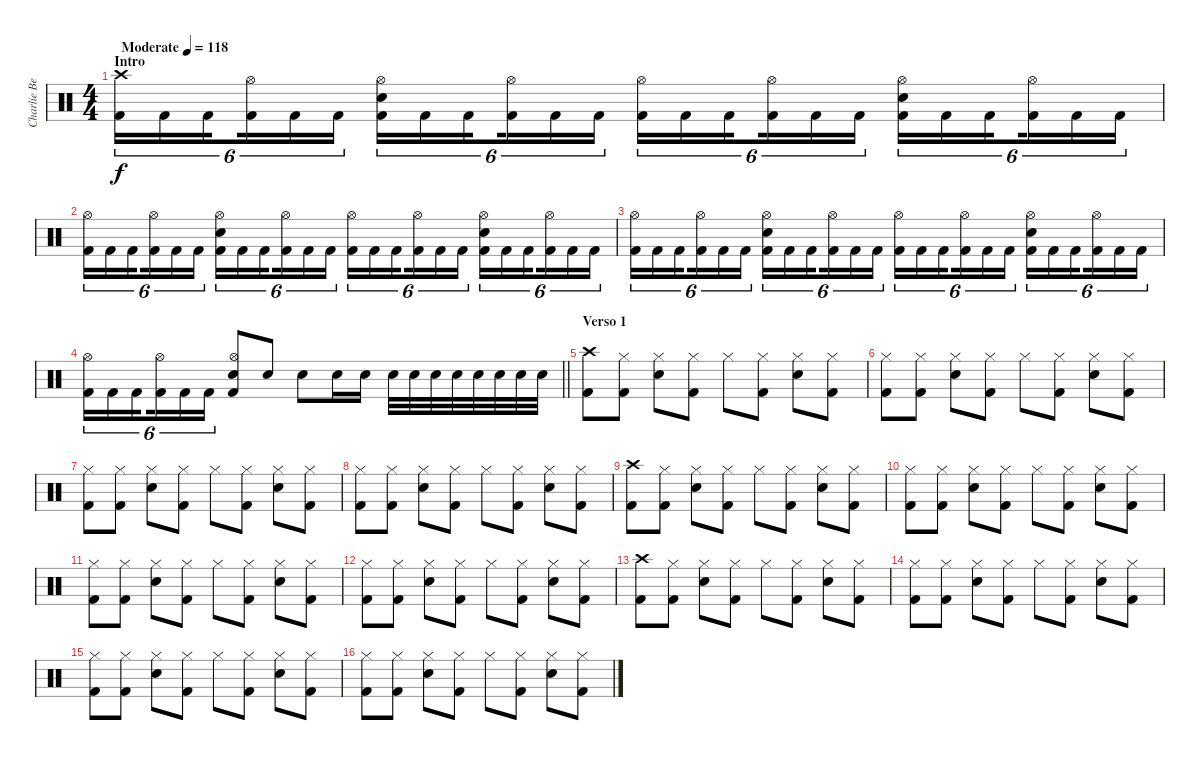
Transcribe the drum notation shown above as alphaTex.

\track ("Charlie Benante" "Charlie Be") {instrument percussion}
\staff {score}
\articulation defaults
\ts (4 4)
\section ("" "Intro")
\tempo (118 "Moderate")
\clef neutral
\ks c
("Crash high (hit)" "Kick (hit) 2").16{tu (6 4) dy f} "Kick (hit) 2".16{tu (6 4)} "Kick (hit) 2".16{tu (6 4) beam splitsecondary} ("Hi-Hat (open)" "Kick (hit) 2").16{tu (6 4)} "Kick (hit) 2".16{tu (6 4)} "Kick (hit) 2".16{tu (6 4)} ("Hi-Hat (open)" "Snare (hit) 2" "Kick (hit) 2").16{tu (6 4)} "Kick (hit) 2".16{tu (6 4)} "Kick (hit) 2".16{tu (6 4) beam splitsecondary} ("Hi-Hat (open)" "Kick (hit) 2").16{tu (6 4)} "Kick (hit) 2".16{tu (6 4)} "Kick (hit) 2".16{tu (6 4)} ("Hi-Hat (open)" "Kick (hit) 2").16{tu (6 4)} "Kick (hit) 2".16{tu (6 4)} "Kick (hit) 2".16{tu (6 4) beam splitsecondary} ("Hi-Hat (open)" "Kick (hit) 2").16{tu (6 4)} "Kick (hit) 2".16{tu (6 4)} "Kick (hit) 2".16{tu (6 4)} ("Hi-Hat (open)" "Snare (hit) 2" "Kick (hit) 2").16{tu (6 4)} "Kick (hit) 2".16{tu (6 4)} "Kick (hit) 2".16{tu (6 4) beam splitsecondary} ("Hi-Hat (open)" "Kick (hit) 2").16{tu (6 4)} "Kick (hit) 2".16{tu (6 4)} "Kick (hit) 2".16{tu (6 4)} |
("Hi-Hat (open)" "Kick (hit) 2").16{tu (6 4)} "Kick (hit) 2".16{tu (6 4)} "Kick (hit) 2".16{tu (6 4) beam splitsecondary} ("Hi-Hat (open)" "Kick (hit) 2").16{tu (6 4)} "Kick (hit) 2".16{tu (6 4)} "Kick (hit) 2".16{tu (6 4)} ("Hi-Hat (open)" "Snare (hit) 2" "Kick (hit) 2").16{tu (6 4)} "Kick (hit) 2".16{tu (6 4)} "Kick (hit) 2".16{tu (6 4) beam splitsecondary} ("Hi-Hat (open)" "Kick (hit) 2").16{tu (6 4)} "Kick (hit) 2".16{tu (6 4)} "Kick (hit) 2".16{tu (6 4)} ("Hi-Hat (open)" "Kick (hit) 2").16{tu (6 4)} "Kick (hit) 2".16{tu (6 4)} "Kick (hit) 2".16{tu (6 4) beam splitsecondary} ("Hi-Hat (open)" "Kick (hit) 2").16{tu (6 4)} "Kick (hit) 2".16{tu (6 4)} "Kick (hit) 2".16{tu (6 4)} ("Hi-Hat (open)" "Snare (hit) 2" "Kick (hit) 2").16{tu (6 4)} "Kick (hit) 2".16{tu (6 4)} "Kick (hit) 2".16{tu (6 4) beam splitsecondary} ("Hi-Hat (open)" "Kick (hit) 2").16{tu (6 4)} "Kick (hit) 2".16{tu (6 4)} "Kick (hit) 2".16{tu (6 4)} |
("Hi-Hat (open)" "Kick (hit) 2").16{tu (6 4)} "Kick (hit) 2".16{tu (6 4)} "Kick (hit) 2".16{tu (6 4) beam splitsecondary} ("Hi-Hat (open)" "Kick (hit) 2").16{tu (6 4)} "Kick (hit) 2".16{tu (6 4)} "Kick (hit) 2".16{tu (6 4)} ("Hi-Hat (open)" "Snare (hit) 2" "Kick (hit) 2").16{tu (6 4)} "Kick (hit) 2".16{tu (6 4)} "Kick (hit) 2".16{tu (6 4) beam splitsecondary} ("Hi-Hat (open)" "Kick (hit) 2").16{tu (6 4)} "Kick (hit) 2".16{tu (6 4)} "Kick (hit) 2".16{tu (6 4)} ("Hi-Hat (open)" "Kick (hit) 2").16{tu (6 4)} "Kick (hit) 2".16{tu (6 4)} "Kick (hit) 2".16{tu (6 4) beam splitsecondary} ("Hi-Hat (open)" "Kick (hit) 2").16{tu (6 4)} "Kick (hit) 2".16{tu (6 4)} "Kick (hit) 2".16{tu (6 4)} ("Hi-Hat (open)" "Snare (hit) 2" "Kick (hit) 2").16{tu (6 4)} "Kick (hit) 2".16{tu (6 4)} "Kick (hit) 2".16{tu (6 4) beam splitsecondary} ("Hi-Hat (open)" "Kick (hit) 2").16{tu (6 4)} "Kick (hit) 2".16{tu (6 4)} "Kick (hit) 2".16{tu (6 4)} |
\barLineRight lightlight
("Hi-Hat (open)" "Kick (hit) 2").16{tu (6 4)} "Kick (hit) 2".16{tu (6 4)} "Kick (hit) 2".16{tu (6 4) beam splitsecondary} ("Hi-Hat (open)" "Kick (hit) 2").16{tu (6 4)} "Kick (hit) 2".16{tu (6 4)} "Kick (hit) 2".16{tu (6 4)} ("Hi-Hat (open)" "Snare (hit) 2" "Kick (hit) 2").8 "Snare (hit) 2".8 "Snare (hit) 2".8 "Snare (hit) 2".16 "Snare (hit) 2".16 "Snare (hit) 2".32 "Snare (hit) 2".32 "Snare (hit) 2".32 "Snare (hit) 2".32 "Snare (hit) 2".32 "Snare (hit) 2".32 "Snare (hit) 2".32 "Snare (hit) 2".32 |
\section ("" "Verso 1")
("Crash high (hit)" "Kick (hit) 2").8 ("Hi-Hat (closed)" "Kick (hit) 2").8 ("Hi-Hat (closed)" "Snare (hit) 2").8 ("Hi-Hat (closed)" "Kick (hit) 2").8 "Hi-Hat (closed)".8 ("Hi-Hat (closed)" "Kick (hit) 2").8 ("Hi-Hat (closed)" "Snare (hit) 2").8 ("Hi-Hat (closed)" "Kick (hit) 2").8 |
("Hi-Hat (closed)" "Kick (hit) 2").8 ("Hi-Hat (closed)" "Kick (hit) 2").8 ("Hi-Hat (closed)" "Snare (hit) 2").8 ("Hi-Hat (closed)" "Kick (hit) 2").8 "Hi-Hat (closed)".8 ("Hi-Hat (closed)" "Kick (hit) 2").8 ("Hi-Hat (closed)" "Snare (hit) 2").8 ("Hi-Hat (closed)" "Kick (hit) 2").8 |
("Hi-Hat (closed)" "Kick (hit) 2").8 ("Hi-Hat (closed)" "Kick (hit) 2").8 ("Hi-Hat (closed)" "Snare (hit) 2").8 ("Hi-Hat (closed)" "Kick (hit) 2").8 "Hi-Hat (closed)".8 ("Hi-Hat (closed)" "Kick (hit) 2").8 ("Hi-Hat (closed)" "Snare (hit) 2").8 ("Hi-Hat (closed)" "Kick (hit) 2").8 |
("Hi-Hat (closed)" "Kick (hit) 2").8 ("Hi-Hat (closed)" "Kick (hit) 2").8 ("Hi-Hat (closed)" "Snare (hit) 2").8 ("Hi-Hat (closed)" "Kick (hit) 2").8 "Hi-Hat (closed)".8 ("Hi-Hat (closed)" "Kick (hit) 2").8 ("Hi-Hat (closed)" "Snare (hit) 2").8 ("Hi-Hat (closed)" "Kick (hit) 2").8 |
("Crash high (hit)" "Kick (hit) 2").8 ("Hi-Hat (closed)" "Kick (hit) 2").8 ("Hi-Hat (closed)" "Snare (hit) 2").8 ("Hi-Hat (closed)" "Kick (hit) 2").8 "Hi-Hat (closed)".8 ("Hi-Hat (closed)" "Kick (hit) 2").8 ("Hi-Hat (closed)" "Snare (hit) 2").8 ("Hi-Hat (closed)" "Kick (hit) 2").8 |
("Hi-Hat (closed)" "Kick (hit) 2").8 ("Hi-Hat (closed)" "Kick (hit) 2").8 ("Hi-Hat (closed)" "Snare (hit) 2").8 ("Hi-Hat (closed)" "Kick (hit) 2").8 "Hi-Hat (closed)".8 ("Hi-Hat (closed)" "Kick (hit) 2").8 ("Hi-Hat (closed)" "Snare (hit) 2").8 ("Hi-Hat (closed)" "Kick (hit) 2").8 |
("Hi-Hat (closed)" "Kick (hit) 2").8 ("Hi-Hat (closed)" "Kick (hit) 2").8 ("Hi-Hat (closed)" "Snare (hit) 2").8 ("Hi-Hat (closed)" "Kick (hit) 2").8 "Hi-Hat (closed)".8 ("Hi-Hat (closed)" "Kick (hit) 2").8 ("Hi-Hat (closed)" "Snare (hit) 2").8 ("Hi-Hat (closed)" "Kick (hit) 2").8 |
("Hi-Hat (closed)" "Kick (hit) 2").8 ("Hi-Hat (closed)" "Kick (hit) 2").8 ("Hi-Hat (closed)" "Snare (hit) 2").8 ("Hi-Hat (closed)" "Kick (hit) 2").8 "Hi-Hat (closed)".8 ("Hi-Hat (closed)" "Kick (hit) 2").8 ("Hi-Hat (closed)" "Snare (hit) 2").8 ("Hi-Hat (closed)" "Kick (hit) 2").8 |
("Crash high (hit)" "Kick (hit) 2").8 ("Hi-Hat (closed)" "Kick (hit) 2").8 ("Hi-Hat (closed)" "Snare (hit) 2").8 ("Hi-Hat (closed)" "Kick (hit) 2").8 "Hi-Hat (closed)".8 ("Hi-Hat (closed)" "Kick (hit) 2").8 ("Hi-Hat (closed)" "Snare (hit) 2").8 ("Hi-Hat (closed)" "Kick (hit) 2").8 |
("Hi-Hat (closed)" "Kick (hit) 2").8 ("Hi-Hat (closed)" "Kick (hit) 2").8 ("Hi-Hat (closed)" "Snare (hit) 2").8 ("Hi-Hat (closed)" "Kick (hit) 2").8 "Hi-Hat (closed)".8 ("Hi-Hat (closed)" "Kick (hit) 2").8 ("Hi-Hat (closed)" "Snare (hit) 2").8 ("Hi-Hat (closed)" "Kick (hit) 2").8 |
("Hi-Hat (closed)" "Kick (hit) 2").8 ("Hi-Hat (closed)" "Kick (hit) 2").8 ("Hi-Hat (closed)" "Snare (hit) 2").8 ("Hi-Hat (closed)" "Kick (hit) 2").8 "Hi-Hat (closed)".8 ("Hi-Hat (closed)" "Kick (hit) 2").8 ("Hi-Hat (closed)" "Snare (hit) 2").8 ("Hi-Hat (closed)" "Kick (hit) 2").8 |
("Hi-Hat (closed)" "Kick (hit) 2").8 ("Hi-Hat (closed)" "Kick (hit) 2").8 ("Hi-Hat (closed)" "Snare (hit) 2").8 ("Hi-Hat (closed)" "Kick (hit) 2").8 "Hi-Hat (closed)".8 ("Hi-Hat (closed)" "Kick (hit) 2").8 ("Hi-Hat (closed)" "Snare (hit) 2").8 ("Hi-Hat (closed)" "Kick (hit) 2").8
